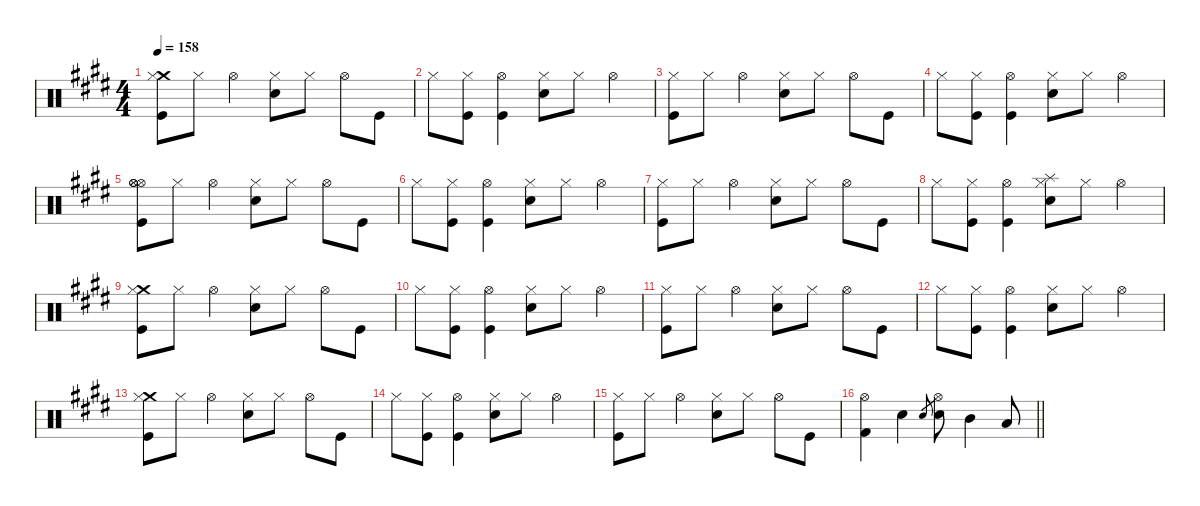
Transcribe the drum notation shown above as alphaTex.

\defaultSystemsLayout 4
\hideDynamics
\bracketExtendMode nobrackets
\singleTrackTrackNamePolicy hidden
\multiTrackTrackNamePolicy hidden
\firstSystemTrackNameMode fullname
\firstSystemTrackNameOrientation horizontal
\otherSystemsTrackNameOrientation horizontal
\track ("Drums" "drm.") {instrument percussion}
\staff {score}
\articulation defaults
\ts (4 4)
\tempo 158
\clef neutral
\ks c#minor
("Crash medium (hit)"{acc forcenatural} "Hi-Hat (closed)"{acc forcenatural} "Kick (hit)"{acc forcenatural}).8{dy f beam Down} "Hi-Hat (closed)"{acc forcenatural}.8{dy mf beam Down} "Hi-Hat (open)"{acc forcenatural}.4{dy f beam Down} ("Hi-Hat (closed)"{acc forcenatural} "Snare (hit) 2"{acc forcenatural}).8{beam Down} "Hi-Hat (closed)"{acc forcenatural}.8{dy mf beam Down} "Hi-Hat (open)"{acc forcenatural}.8{dy f beam Down} "Kick (hit)"{acc forcenatural}.8{beam Down} |
"Hi-Hat (closed)"{acc forcenatural}.8{beam Down} ("Hi-Hat (closed)"{acc forcenatural} "Kick (hit)"{acc forcenatural}).8{dy mf beam Down} ("Hi-Hat (open)"{acc forcenatural} "Kick (hit)"{acc forcenatural}).4{dy f beam Down} ("Hi-Hat (closed)"{acc forcenatural} "Snare (hit) 2"{acc forcenatural}).8{beam Down} "Hi-Hat (closed)"{acc forcenatural}.8{dy mf beam Down} "Hi-Hat (open)"{acc forcenatural}.4{dy f beam Down} |
("Hi-Hat (closed)"{acc forcenatural} "Kick (hit)"{acc forcenatural}).8{beam Down} "Hi-Hat (closed)"{acc forcenatural}.8{dy mf beam Down} "Hi-Hat (open)"{acc forcenatural}.4{dy f beam Down} ("Hi-Hat (closed)"{acc forcenatural} "Snare (hit) 2"{acc forcenatural}).8{beam Down} "Hi-Hat (closed)"{acc forcenatural}.8{dy mf beam Down} "Hi-Hat (open)"{acc forcenatural}.8{dy f beam Down} "Kick (hit)"{acc forcenatural}.8{beam Down} |
"Hi-Hat (closed)"{acc forcenatural}.8{beam Down} ("Hi-Hat (closed)"{acc forcenatural} "Kick (hit)"{acc forcenatural}).8{dy mf beam Down} ("Hi-Hat (open)"{acc forcenatural} "Kick (hit)"{acc forcenatural}).4{dy f beam Down} ("Hi-Hat (closed)"{acc forcenatural} "Snare (hit) 2"{acc forcenatural}).8{beam Down} "Hi-Hat (closed)"{acc forcenatural}.8{dy mf beam Down} "Hi-Hat (open)"{acc forcenatural}.4{dy f beam Down} |
("Hi-Hat (open)"{acc forcenatural} "Hi-Hat (open)"{acc forcenatural} "Hi-Hat (open)"{acc forcenatural} "Kick (hit)"{acc forcenatural}).8{beam Down} "Hi-Hat (closed)"{acc forcenatural}.8{dy mf beam Down} "Hi-Hat (open)"{acc forcenatural}.4{dy f beam Down} ("Hi-Hat (closed)"{acc forcenatural} "Snare (hit) 2"{acc forcenatural}).8{beam Down} "Hi-Hat (closed)"{acc forcenatural}.8{dy mf beam Down} "Hi-Hat (open)"{acc forcenatural}.8{dy f beam Down} "Kick (hit)"{acc forcenatural}.8{beam Down} |
"Hi-Hat (closed)"{acc forcenatural}.8{beam Down} ("Hi-Hat (closed)"{acc forcenatural} "Kick (hit)"{acc forcenatural}).8{dy mf beam Down} ("Hi-Hat (open)"{acc forcenatural} "Kick (hit)"{acc forcenatural}).4{dy f beam Down} ("Hi-Hat (closed)"{acc forcenatural} "Snare (hit) 2"{acc forcenatural}).8{beam Down} "Hi-Hat (closed)"{acc forcenatural}.8{dy mf beam Down} "Hi-Hat (open)"{acc forcenatural}.4{dy f beam Down} |
("Hi-Hat (closed)"{acc forcenatural} "Kick (hit)"{acc forcenatural}).8{beam Down} "Hi-Hat (closed)"{acc forcenatural}.8{dy mf beam Down} "Hi-Hat (open)"{acc forcenatural}.4{dy f beam Down} ("Hi-Hat (closed)"{acc forcenatural} "Snare (hit) 2"{acc forcenatural}).8{beam Down} "Hi-Hat (closed)"{acc forcenatural}.8{dy mf beam Down} "Hi-Hat (open)"{acc forcenatural}.8{dy f beam Down} "Kick (hit)"{acc forcenatural}.8{beam Down} |
"Hi-Hat (closed)"{acc forcenatural}.8{beam Down} ("Hi-Hat (closed)"{acc forcenatural} "Kick (hit)"{acc forcenatural}).8{dy mf beam Down} ("Hi-Hat (open)"{acc forcenatural} "Kick (hit)"{acc forcenatural}).4{dy f beam Down} ("Splash (hit)"{acc forcenatural} "Hi-Hat (closed)"{acc forcenatural} "Snare (hit) 2"{acc forcenatural}).8{beam Down} "Hi-Hat (closed)"{acc forcenatural}.8{dy mf beam Down} "Hi-Hat (open)"{acc forcenatural}.4{dy f beam Down} |
("Crash medium (hit)"{acc forcenatural} "Hi-Hat (closed)"{acc forcenatural} "Kick (hit)"{acc forcenatural}).8{beam Down} "Hi-Hat (closed)"{acc forcenatural}.8{dy mf beam Down} "Hi-Hat (open)"{acc forcenatural}.4{dy f beam Down} ("Hi-Hat (closed)"{acc forcenatural} "Snare (hit) 2"{acc forcenatural}).8{beam Down} "Hi-Hat (closed)"{acc forcenatural}.8{dy mf beam Down} "Hi-Hat (open)"{acc forcenatural}.8{dy f beam Down} "Kick (hit)"{acc forcenatural}.8{beam Down} |
"Hi-Hat (closed)"{acc forcenatural}.8{beam Down} ("Hi-Hat (closed)"{acc forcenatural} "Kick (hit)"{acc forcenatural}).8{dy mf beam Down} ("Hi-Hat (open)"{acc forcenatural} "Kick (hit)"{acc forcenatural}).4{dy f beam Down} ("Hi-Hat (closed)"{acc forcenatural} "Snare (hit) 2"{acc forcenatural}).8{beam Down} "Hi-Hat (closed)"{acc forcenatural}.8{dy mf beam Down} "Hi-Hat (open)"{acc forcenatural}.4{dy f beam Down} |
("Hi-Hat (closed)"{acc forcenatural} "Kick (hit)"{acc forcenatural}).8{beam Down} "Hi-Hat (closed)"{acc forcenatural}.8{dy mf beam Down} "Hi-Hat (open)"{acc forcenatural}.4{dy f beam Down} ("Hi-Hat (closed)"{acc forcenatural} "Snare (hit) 2"{acc forcenatural}).8{beam Down} "Hi-Hat (closed)"{acc forcenatural}.8{dy mf beam Down} "Hi-Hat (open)"{acc forcenatural}.8{dy f beam Down} "Kick (hit)"{acc forcenatural}.8{beam Down} |
"Hi-Hat (closed)"{acc forcenatural}.8{beam Down} ("Hi-Hat (closed)"{acc forcenatural} "Kick (hit)"{acc forcenatural}).8{dy mf beam Down} ("Hi-Hat (open)"{acc forcenatural} "Kick (hit)"{acc forcenatural}).4{dy f beam Down} ("Hi-Hat (closed)"{acc forcenatural} "Snare (hit) 2"{acc forcenatural}).8{beam Down} "Hi-Hat (closed)"{acc forcenatural}.8{dy mf beam Down} "Hi-Hat (open)"{acc forcenatural}.4{dy f beam Down} |
("Crash medium (hit)"{acc forcenatural} "Hi-Hat (closed)"{acc forcenatural} "Kick (hit)"{acc forcenatural}).8{beam Down} "Hi-Hat (closed)"{acc forcenatural}.8{dy mf beam Down} "Hi-Hat (open)"{acc forcenatural}.4{dy f beam Down} ("Hi-Hat (closed)"{acc forcenatural} "Snare (hit) 2"{acc forcenatural}).8{beam Down} "Hi-Hat (closed)"{acc forcenatural}.8{dy mf beam Down} "Hi-Hat (open)"{acc forcenatural}.8{dy f beam Down} "Kick (hit)"{acc forcenatural}.8{beam Down} |
"Hi-Hat (closed)"{acc forcenatural}.8{beam Down} ("Hi-Hat (closed)"{acc forcenatural} "Kick (hit)"{acc forcenatural}).8{dy mf beam Down} ("Hi-Hat (open)"{acc forcenatural} "Kick (hit)"{acc forcenatural}).4{dy f beam Down} ("Hi-Hat (closed)"{acc forcenatural} "Snare (hit) 2"{acc forcenatural}).8{beam Down} "Hi-Hat (closed)"{acc forcenatural}.8{dy mf beam Down} "Hi-Hat (open)"{acc forcenatural}.4{dy f beam Down} |
("Hi-Hat (closed)"{acc forcenatural} "Kick (hit)"{acc forcenatural}).8{beam Down} "Hi-Hat (closed)"{acc forcenatural}.8{dy mf beam Down} "Hi-Hat (open)"{acc forcenatural}.4{dy f beam Down} ("Hi-Hat (closed)"{acc forcenatural} "Snare (hit) 2"{acc forcenatural}).8{beam Down} "Hi-Hat (closed)"{acc forcenatural}.8{dy mf beam Down} "Hi-Hat (open)"{acc forcenatural}.8{dy f beam Down} "Kick (hit)"{acc forcenatural}.8{beam Down} |
\barLineRight lightlight
("Hi-Hat (open)"{acc forcenatural} "Kick (hit) 2"{acc forcenatural}).4{beam Down} "Snare (hit) 2"{acc forcenatural}.4{beam Down} "Electric Snare (hit)"{acc forcenatural}.8{gr dy mf beam Up} ("Hi-Hat (open)"{acc forcenatural} "Snare (hit) 2"{acc forcenatural}).8{dy f beam Down} "Mid Tom (hit)"{acc forcenatural}.4{beam Down} "Low Tom (hit)"{acc forcenatural}.8{beam Up}
